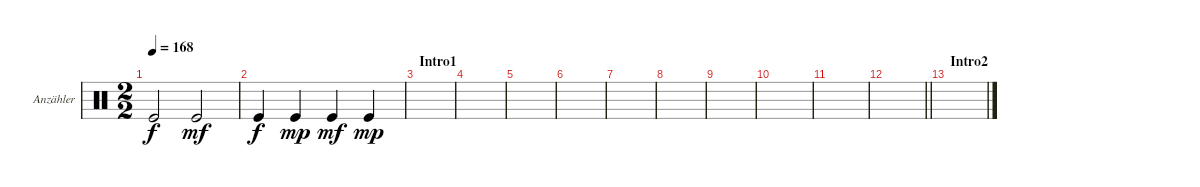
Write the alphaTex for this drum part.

\bracketExtendMode groupsimilarinstruments
\multiTrackTrackNamePolicy hidden
\firstSystemTrackNameOrientation horizontal
\otherSystemsTrackNameOrientation horizontal
\track ("Anzähler" "Anzähler") {instrument percussion}
\staff {score}
\articulation defaults
\ts (2 2)
\tempo 168
\clef neutral
\scale
0.47191
\ks c "Kick (hit)".2{dy f} "Kick (hit)".2{dy mf}
|
\scale
0.264045 "Kick (hit)".4{dy f} "Kick (hit)".4{dy mp} "Kick (hit)".4{dy mf} "Kick (hit)".4{dy mp} |
\section ("" "Intro1")
\scale
0.264045 |
\scale
0.333333 |
\scale
0.333333 |
\scale
0.333333 |
\scale
0.333333 |
\scale
0.333333 |
\scale
0.333333 |
\scale
0.333333 |
\scale
0.333333 |
\scale
0.333333
\barLineRight lightlight
|
\section ("" "Intro2")
\scale
0.333333 |
\scale
0.333333 |
\scale
0.333333 |
\scale
0.333333
